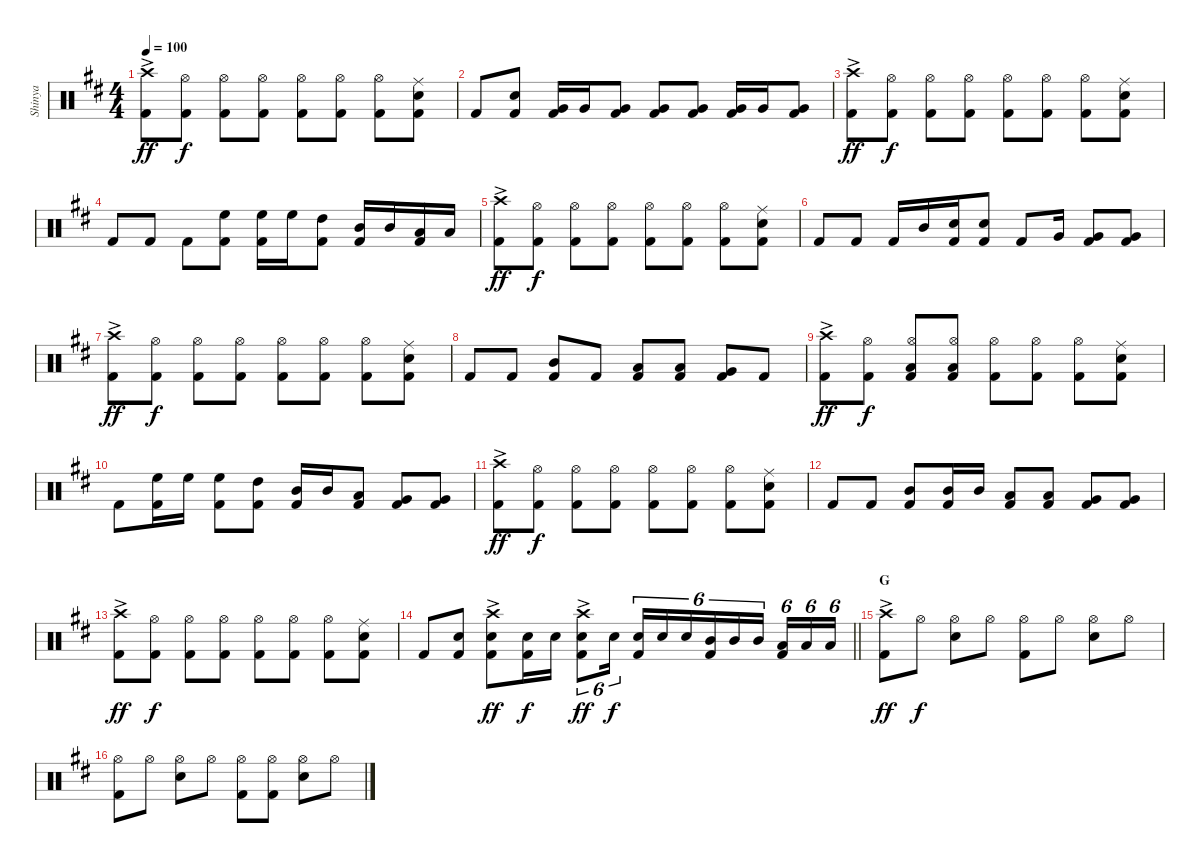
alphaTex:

\track ("Shinya" "Shinya") {instrument percussion}
\staff {score}
\articulation defaults
\ts (4 4)
\tempo 100
\clef neutral
\ks d
("Crash high (hit)"{ac} "Kick (hit) 2").8{dy ff} ("Hi-Hat (open)" "Kick (hit) 2").8{dy f} ("Hi-Hat (open)" "Kick (hit) 2").8 ("Hi-Hat (open)" "Kick (hit) 2").8 ("Hi-Hat (open)" "Kick (hit) 2").8 ("Hi-Hat (open)" "Kick (hit) 2").8 ("Hi-Hat (open)" "Kick (hit) 2").8 ("Ride (middle)" "Snare (hit) 2" "Kick (hit) 2").8 |
"Kick (hit) 2".8 ("Snare (hit) 2" "Kick (hit) 2").8 ("Very Low Tom (hit)" "Kick (hit) 2").16 "Very Low Tom (hit)".16 ("Very Low Tom (hit)" "Kick (hit) 2").8 ("Very Low Tom (hit)" "Kick (hit) 2").8 ("Very Low Tom (hit)" "Kick (hit) 2").8 ("Very Low Tom (hit)" "Kick (hit) 2").16 "Very Low Tom (hit)".16 ("Very Low Tom (hit)" "Kick (hit) 2").8 |
("Crash high (hit)"{ac} "Kick (hit) 2").8{dy ff} ("Hi-Hat (open)" "Kick (hit) 2").8{dy f} ("Hi-Hat (open)" "Kick (hit) 2").8 ("Hi-Hat (open)" "Kick (hit) 2").8 ("Hi-Hat (open)" "Kick (hit) 2").8 ("Hi-Hat (open)" "Kick (hit) 2").8 ("Hi-Hat (open)" "Kick (hit) 2").8 ("Ride (middle)" "Snare (hit) 2" "Kick (hit) 2").8 |
"Kick (hit) 2".8 "Kick (hit) 2".8 "Kick (hit) 2".8 ("High Floor Tom (hit)" "Kick (hit) 2").8 ("High Floor Tom (hit)" "Kick (hit) 2").16 "High Floor Tom (hit)".16 ("High Tom (hit)" "Kick (hit) 2").8 ("Mid Tom (hit)" "Kick (hit) 2").16 "Mid Tom (hit)".16 ("Low Tom (hit)" "Kick (hit) 2").16 "Low Tom (hit)".16 |
("Crash high (hit)"{ac} "Kick (hit) 2").8{dy ff} ("Hi-Hat (open)" "Kick (hit) 2").8{dy f} ("Hi-Hat (open)" "Kick (hit) 2").8 ("Hi-Hat (open)" "Kick (hit) 2").8 ("Hi-Hat (open)" "Kick (hit) 2").8 ("Hi-Hat (open)" "Kick (hit) 2").8 ("Hi-Hat (open)" "Kick (hit) 2").8 ("Ride (middle)" "Snare (hit) 2" "Kick (hit) 2").8 |
"Kick (hit) 2".8 "Kick (hit) 2".8 "Kick (hit) 2".16 "Mid Tom (hit)".16 ("Snare (hit) 2" "Kick (hit) 2").16 ("Snare (hit) 2" "Kick (hit) 2").8 "Kick (hit) 2".8 "Very Low Tom (hit)".16 ("Very Low Tom (hit)" "Kick (hit) 2").8 ("Very Low Tom (hit)" "Kick (hit) 2").8 |
("Crash high (hit)"{ac} "Kick (hit) 2").8{dy ff} ("Hi-Hat (open)" "Kick (hit) 2").8{dy f} ("Hi-Hat (open)" "Kick (hit) 2").8 ("Hi-Hat (open)" "Kick (hit) 2").8 ("Hi-Hat (open)" "Kick (hit) 2").8 ("Hi-Hat (open)" "Kick (hit) 2").8 ("Hi-Hat (open)" "Kick (hit) 2").8 ("Ride (middle)" "Snare (hit) 2" "Kick (hit) 2").8 |
"Kick (hit) 2".8 "Kick (hit) 2".8 ("Mid Tom (hit)" "Kick (hit) 2").8 "Kick (hit) 2".8 ("Low Tom (hit)" "Kick (hit) 2").8 ("Low Tom (hit)" "Kick (hit) 2").8 ("Very Low Tom (hit)" "Kick (hit) 2").8 "Kick (hit) 2".8 |
("Crash high (hit)"{ac} "Kick (hit) 2").8{dy ff} ("Hi-Hat (open)" "Kick (hit) 2").8{dy f} ("Hi-Hat (open)" "Low Tom (hit)" "Kick (hit) 2").8 ("Hi-Hat (open)" "Low Tom (hit)" "Kick (hit) 2").8 ("Hi-Hat (open)" "Kick (hit) 2").8 ("Hi-Hat (open)" "Kick (hit) 2").8 ("Hi-Hat (open)" "Kick (hit) 2").8 ("Ride (middle)" "Snare (hit) 2" "Kick (hit) 2").8 |
"Kick (hit) 2".8 ("High Floor Tom (hit)" "Kick (hit) 2").16 "High Floor Tom (hit)".16 ("High Floor Tom (hit)" "Kick (hit) 2").8 ("High Tom (hit)" "Kick (hit) 2").8 ("Mid Tom (hit)" "Kick (hit) 2").16 "Mid Tom (hit)".16 ("Low Tom (hit)" "Kick (hit) 2").8 ("Very Low Tom (hit)" "Kick (hit) 2").8 ("Very Low Tom (hit)" "Kick (hit) 2").8 |
("Crash high (hit)"{ac} "Kick (hit) 2").8{dy ff} ("Hi-Hat (open)" "Kick (hit) 2").8{dy f} ("Hi-Hat (open)" "Kick (hit) 2").8 ("Hi-Hat (open)" "Kick (hit) 2").8 ("Hi-Hat (open)" "Kick (hit) 2").8 ("Hi-Hat (open)" "Kick (hit) 2").8 ("Hi-Hat (open)" "Kick (hit) 2").8 ("Ride (middle)" "Snare (hit) 2" "Kick (hit) 2").8 |
"Kick (hit) 2".8 "Kick (hit) 2".8 ("Mid Tom (hit)" "Kick (hit) 2").8 ("Mid Tom (hit)" "Kick (hit) 2").16 "Mid Tom (hit)".16 ("Low Tom (hit)" "Kick (hit) 2").8 ("Low Tom (hit)" "Kick (hit) 2").8 ("Very Low Tom (hit)" "Kick (hit) 2").8 ("Very Low Tom (hit)" "Kick (hit) 2").8 |
("Crash high (hit)"{ac} "Kick (hit) 2").8{dy ff} ("Hi-Hat (open)" "Kick (hit) 2").8{dy f} ("Hi-Hat (open)" "Kick (hit) 2").8 ("Hi-Hat (open)" "Kick (hit) 2").8 ("Hi-Hat (open)" "Kick (hit) 2").8 ("Hi-Hat (open)" "Kick (hit) 2").8 ("Hi-Hat (open)" "Kick (hit) 2").8 ("Ride (middle)" "Snare (hit) 2" "Kick (hit) 2").8 |
\barLineRight lightlight "Kick (hit) 2".8
("Snare (hit) 2" "Kick (hit) 2").8 ("Crash high (hit)"{ac} "Snare (hit) 2" "Kick (hit) 2").8{dy ff} ("Snare (hit) 2" "Kick (hit) 2").16{dy f} "Snare (hit) 2".16 ("Crash high (hit)"{ac} "Snare (hit) 2" "Kick (hit) 2").8{tu (6 4) dy ff} "Snare (hit) 2".16{tu (6 4) dy f beam splitsecondary} ("Snare (hit) 2" "Kick (hit) 2").16{tu (6 4)} "Snare (hit) 2".16{tu (6 4)} "Snare (hit) 2".16{tu (6 4)} ("Mid Tom (hit)" "Kick (hit) 2").16{tu (6 4)} "Mid Tom (hit)".16{tu (6 4)} "Mid Tom (hit)".16{tu (6 4) beam splitsecondary} ("Low Tom (hit)" "Kick (hit) 2").16{tu (6 4)} "Low Tom (hit)".16{tu (6 4)} "Low Tom (hit)".16{tu (6 4)} |
\section ("" "G")
("Crash high (hit)" "Kick (hit) 2"{ac}).8{dy ff} "Hi-Hat (open)".8{dy f} ("Hi-Hat (open)" "Snare (hit) 2").8 "Hi-Hat (open)".8 ("Hi-Hat (open)" "Kick (hit) 2").8 "Hi-Hat (open)".8 ("Hi-Hat (open)" "Snare (hit) 2").8 "Hi-Hat (open)".8 |
("Hi-Hat (open)" "Kick (hit) 2").8 "Hi-Hat (open)".8 ("Hi-Hat (open)" "Snare (hit) 2").8 "Hi-Hat (open)".8 ("Hi-Hat (open)" "Kick (hit) 2").8 ("Hi-Hat (open)" "Kick (hit) 2").8 ("Hi-Hat (open)" "Snare (hit) 2").8 "Hi-Hat (open)".8
